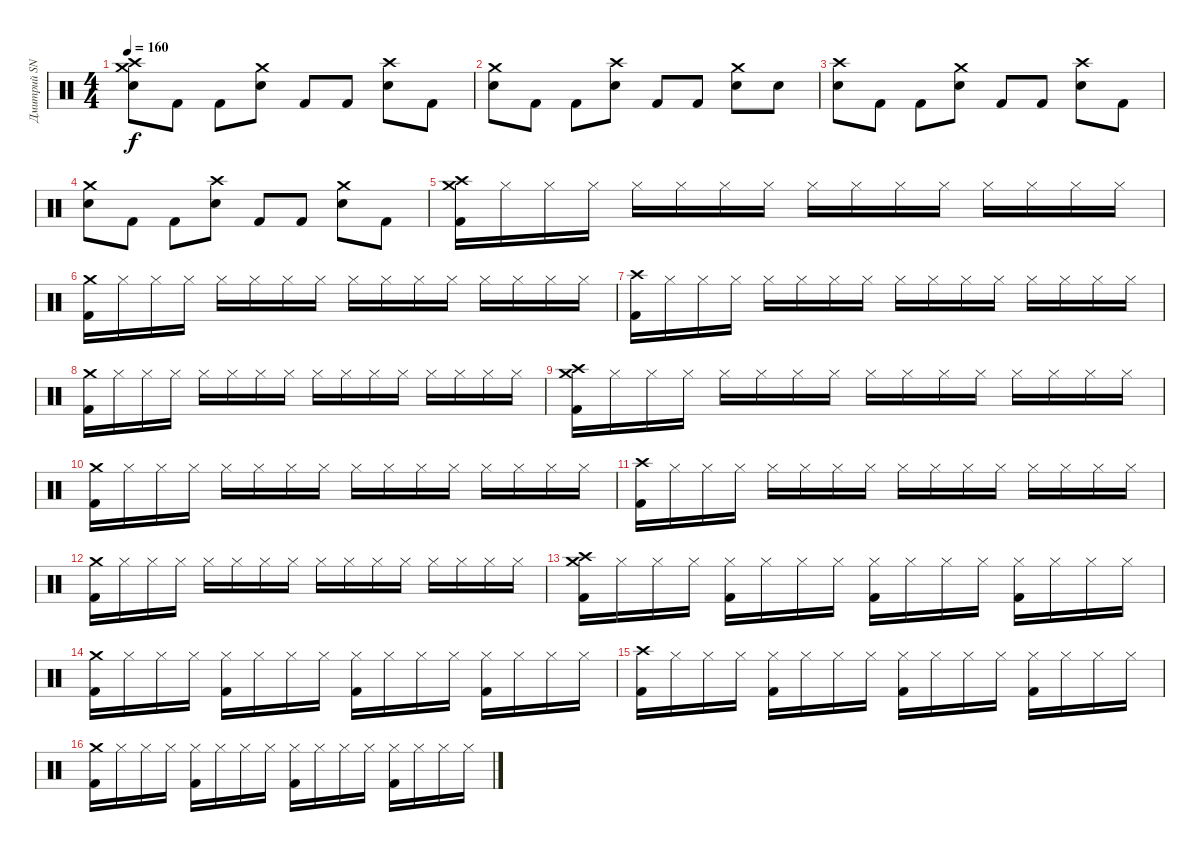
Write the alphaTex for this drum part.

\track ("Дмитрий SNAKE Хакимов" "Дмитрий SN") {instrument percussion}
\staff {score}
\articulation defaults
\ts (4 4)
\tempo 160
\clef neutral
\ks c
("Crash high (hit)" "Crash medium (hit)" "Snare (hit) 2").8{dy f} "Kick (hit) 2".8 "Kick (hit) 2".8 ("Crash medium (hit)" "Snare (hit) 2").8 "Kick (hit) 2".8 "Kick (hit) 2".8 ("Crash high (hit)" "Snare (hit) 2").8 "Kick (hit) 2".8 |
("Crash medium (hit)" "Snare (hit) 2").8 "Kick (hit) 2".8 "Kick (hit) 2".8 ("Crash high (hit)" "Snare (hit) 2").8 "Kick (hit) 2".8 "Kick (hit) 2".8 ("Crash medium (hit)" "Snare (hit) 2").8 "Snare (hit) 2".8 |
("Crash high (hit)" "Snare (hit) 2").8 "Kick (hit) 2".8 "Kick (hit) 2".8 ("Crash medium (hit)" "Snare (hit) 2").8 "Kick (hit) 2".8 "Kick (hit) 2".8 ("Crash high (hit)" "Snare (hit) 2").8 "Kick (hit) 2".8 |
("Crash medium (hit)" "Snare (hit) 2").8 "Kick (hit) 2".8 "Kick (hit) 2".8 ("Crash high (hit)" "Snare (hit) 2").8 "Kick (hit) 2".8 "Kick (hit) 2".8 ("Crash medium (hit)" "Snare (hit) 2").8 "Kick (hit) 2".8 |
("Crash high (hit)" "Crash medium (hit)" "Kick (hit) 2").16 "Hi-Hat (closed)".16 "Hi-Hat (closed)".16 "Hi-Hat (closed)".16 "Hi-Hat (closed)".16 "Hi-Hat (closed)".16 "Hi-Hat (closed)".16 "Hi-Hat (closed)".16 "Hi-Hat (closed)".16 "Hi-Hat (closed)".16 "Hi-Hat (closed)".16 "Hi-Hat (closed)".16 "Hi-Hat (closed)".16 "Hi-Hat (closed)".16 "Hi-Hat (closed)".16 "Hi-Hat (closed)".16 |
("Crash medium (hit)" "Kick (hit) 2").16 "Hi-Hat (closed)".16 "Hi-Hat (closed)".16 "Hi-Hat (closed)".16 "Hi-Hat (closed)".16 "Hi-Hat (closed)".16 "Hi-Hat (closed)".16 "Hi-Hat (closed)".16 "Hi-Hat (closed)".16 "Hi-Hat (closed)".16 "Hi-Hat (closed)".16 "Hi-Hat (closed)".16 "Hi-Hat (closed)".16 "Hi-Hat (closed)".16 "Hi-Hat (closed)".16 "Hi-Hat (closed)".16 |
("Crash high (hit)" "Kick (hit) 2").16 "Hi-Hat (closed)".16 "Hi-Hat (closed)".16 "Hi-Hat (closed)".16 "Hi-Hat (closed)".16 "Hi-Hat (closed)".16 "Hi-Hat (closed)".16 "Hi-Hat (closed)".16 "Hi-Hat (closed)".16 "Hi-Hat (closed)".16 "Hi-Hat (closed)".16 "Hi-Hat (closed)".16 "Hi-Hat (closed)".16 "Hi-Hat (closed)".16 "Hi-Hat (closed)".16 "Hi-Hat (closed)".16 |
("Crash medium (hit)" "Kick (hit) 2").16 "Hi-Hat (closed)".16 "Hi-Hat (closed)".16 "Hi-Hat (closed)".16 "Hi-Hat (closed)".16 "Hi-Hat (closed)".16 "Hi-Hat (closed)".16 "Hi-Hat (closed)".16 "Hi-Hat (closed)".16 "Hi-Hat (closed)".16 "Hi-Hat (closed)".16 "Hi-Hat (closed)".16 "Hi-Hat (closed)".16 "Hi-Hat (closed)".16 "Hi-Hat (closed)".16 "Hi-Hat (closed)".16 |
("Crash high (hit)" "Crash medium (hit)" "Kick (hit) 2").16 "Hi-Hat (closed)".16 "Hi-Hat (closed)".16 "Hi-Hat (closed)".16 "Hi-Hat (closed)".16 "Hi-Hat (closed)".16 "Hi-Hat (closed)".16 "Hi-Hat (closed)".16 "Hi-Hat (closed)".16 "Hi-Hat (closed)".16 "Hi-Hat (closed)".16 "Hi-Hat (closed)".16 "Hi-Hat (closed)".16 "Hi-Hat (closed)".16 "Hi-Hat (closed)".16 "Hi-Hat (closed)".16 |
("Crash medium (hit)" "Kick (hit) 2").16 "Hi-Hat (closed)".16 "Hi-Hat (closed)".16 "Hi-Hat (closed)".16 "Hi-Hat (closed)".16 "Hi-Hat (closed)".16 "Hi-Hat (closed)".16 "Hi-Hat (closed)".16 "Hi-Hat (closed)".16 "Hi-Hat (closed)".16 "Hi-Hat (closed)".16 "Hi-Hat (closed)".16 "Hi-Hat (closed)".16 "Hi-Hat (closed)".16 "Hi-Hat (closed)".16 "Hi-Hat (closed)".16 |
("Crash high (hit)" "Kick (hit) 2").16 "Hi-Hat (closed)".16 "Hi-Hat (closed)".16 "Hi-Hat (closed)".16 "Hi-Hat (closed)".16 "Hi-Hat (closed)".16 "Hi-Hat (closed)".16 "Hi-Hat (closed)".16 "Hi-Hat (closed)".16 "Hi-Hat (closed)".16 "Hi-Hat (closed)".16 "Hi-Hat (closed)".16 "Hi-Hat (closed)".16 "Hi-Hat (closed)".16 "Hi-Hat (closed)".16 "Hi-Hat (closed)".16 |
("Crash medium (hit)" "Kick (hit) 2").16 "Hi-Hat (closed)".16 "Hi-Hat (closed)".16 "Hi-Hat (closed)".16 "Hi-Hat (closed)".16 "Hi-Hat (closed)".16 "Hi-Hat (closed)".16 "Hi-Hat (closed)".16 "Hi-Hat (closed)".16 "Hi-Hat (closed)".16 "Hi-Hat (closed)".16 "Hi-Hat (closed)".16 "Hi-Hat (closed)".16 "Hi-Hat (closed)".16 "Hi-Hat (closed)".16 "Hi-Hat (closed)".16 |
("Crash high (hit)" "Crash medium (hit)" "Kick (hit) 2").16 "Hi-Hat (closed)".16 "Hi-Hat (closed)".16 "Hi-Hat (closed)".16 ("Hi-Hat (closed)" "Kick (hit) 2").16 "Hi-Hat (closed)".16 "Hi-Hat (closed)".16 "Hi-Hat (closed)".16 ("Hi-Hat (closed)" "Kick (hit) 2").16 "Hi-Hat (closed)".16 "Hi-Hat (closed)".16 "Hi-Hat (closed)".16 ("Hi-Hat (closed)" "Kick (hit) 2").16 "Hi-Hat (closed)".16 "Hi-Hat (closed)".16 "Hi-Hat (closed)".16 |
("Crash medium (hit)" "Kick (hit) 2").16 "Hi-Hat (closed)".16 "Hi-Hat (closed)".16 "Hi-Hat (closed)".16 ("Hi-Hat (closed)" "Kick (hit) 2").16 "Hi-Hat (closed)".16 "Hi-Hat (closed)".16 "Hi-Hat (closed)".16 ("Hi-Hat (closed)" "Kick (hit) 2").16 "Hi-Hat (closed)".16 "Hi-Hat (closed)".16 "Hi-Hat (closed)".16 ("Hi-Hat (closed)" "Kick (hit) 2").16 "Hi-Hat (closed)".16 "Hi-Hat (closed)".16 "Hi-Hat (closed)".16 |
("Crash high (hit)" "Kick (hit) 2").16 "Hi-Hat (closed)".16 "Hi-Hat (closed)".16 "Hi-Hat (closed)".16 ("Hi-Hat (closed)" "Kick (hit) 2").16 "Hi-Hat (closed)".16 "Hi-Hat (closed)".16 "Hi-Hat (closed)".16 ("Hi-Hat (closed)" "Kick (hit) 2").16 "Hi-Hat (closed)".16 "Hi-Hat (closed)".16 "Hi-Hat (closed)".16 ("Hi-Hat (closed)" "Kick (hit) 2").16 "Hi-Hat (closed)".16 "Hi-Hat (closed)".16 "Hi-Hat (closed)".16 |
("Crash medium (hit)" "Kick (hit) 2").16 "Hi-Hat (closed)".16 "Hi-Hat (closed)".16 "Hi-Hat (closed)".16 ("Hi-Hat (closed)" "Kick (hit) 2").16 "Hi-Hat (closed)".16 "Hi-Hat (closed)".16 "Hi-Hat (closed)".16 ("Hi-Hat (closed)" "Kick (hit) 2").16 "Hi-Hat (closed)".16 "Hi-Hat (closed)".16 "Hi-Hat (closed)".16 ("Hi-Hat (closed)" "Kick (hit) 2").16 "Hi-Hat (closed)".16 "Hi-Hat (closed)".16 "Hi-Hat (closed)".16
